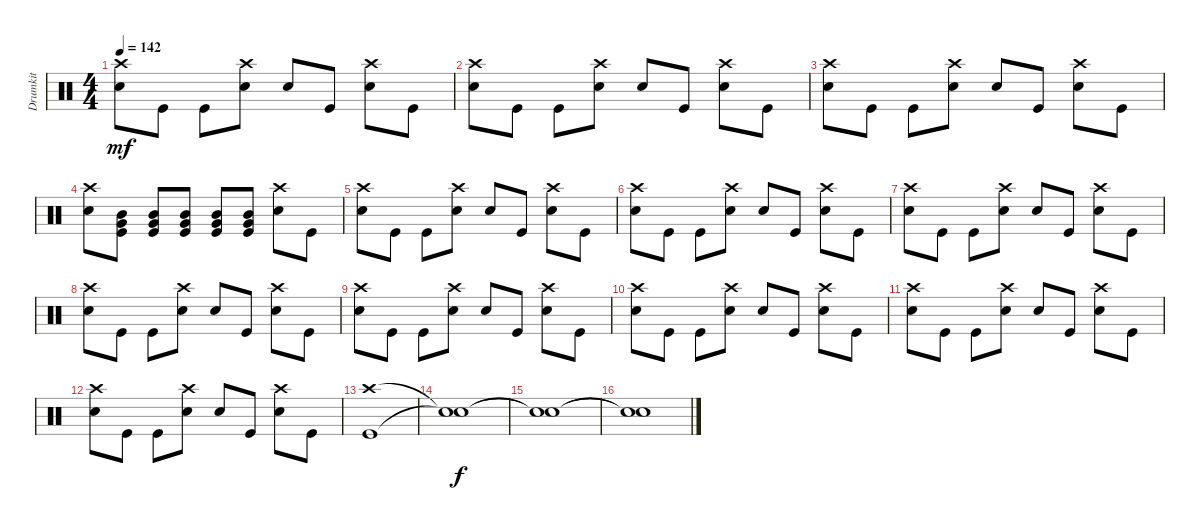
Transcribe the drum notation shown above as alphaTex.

\track ("Drumkit" "Drumkit") {instrument percussion}
\staff {score}
\articulation defaults
\ts (4 4)
\tempo 142
\clef neutral
\ks c
("Snare (hit) 2" "Crash high (hit)").8{dy mf} "Kick (hit)".8 "Kick (hit)".8 ("Snare (hit) 2" "Crash high (hit)").8 "Snare (hit) 2".8 "Kick (hit)".8 ("Snare (hit) 2" "Crash high (hit)").8 "Kick (hit)".8 |
("Snare (hit) 2" "Crash high (hit)").8 "Kick (hit)".8 "Kick (hit)".8 ("Snare (hit) 2" "Crash high (hit)").8 "Snare (hit) 2".8 "Kick (hit)".8 ("Snare (hit) 2" "Crash high (hit)").8 "Kick (hit)".8 |
("Snare (hit) 2" "Crash high (hit)").8 "Kick (hit)".8 "Kick (hit)".8 ("Snare (hit) 2" "Crash high (hit)").8 "Snare (hit) 2".8 "Kick (hit)".8 ("Snare (hit) 2" "Crash high (hit)").8 "Kick (hit)".8 |
("Snare (hit) 2" "Crash high (hit)").8 ("Kick (hit)" "Very Low Tom (hit)" "Mid Tom (hit)").8 ("Kick (hit)" "Very Low Tom (hit)" "Mid Tom (hit)").8 ("Kick (hit)" "Very Low Tom (hit)" "Mid Tom (hit)").8 ("Kick (hit)" "Very Low Tom (hit)" "Mid Tom (hit)").8 ("Kick (hit)" "Very Low Tom (hit)" "Mid Tom (hit)").8 ("Snare (hit) 2" "Crash high (hit)").8 "Kick (hit)".8 |
("Snare (hit) 2" "Crash high (hit)").8 "Kick (hit)".8 "Kick (hit)".8 ("Snare (hit) 2" "Crash high (hit)").8 "Snare (hit) 2".8 "Kick (hit)".8 ("Snare (hit) 2" "Crash high (hit)").8 "Kick (hit)".8 |
("Snare (hit) 2" "Crash high (hit)").8 "Kick (hit)".8 "Kick (hit)".8 ("Snare (hit) 2" "Crash high (hit)").8 "Snare (hit) 2".8 "Kick (hit)".8 ("Snare (hit) 2" "Crash high (hit)").8 "Kick (hit)".8 |
("Snare (hit) 2" "Crash high (hit)").8 "Kick (hit)".8 "Kick (hit)".8 ("Snare (hit) 2" "Crash high (hit)").8 "Snare (hit) 2".8 "Kick (hit)".8 ("Snare (hit) 2" "Crash high (hit)").8 "Kick (hit)".8 |
("Snare (hit) 2" "Crash high (hit)").8 "Kick (hit)".8 "Kick (hit)".8 ("Snare (hit) 2" "Crash high (hit)").8 "Snare (hit) 2".8 "Kick (hit)".8 ("Snare (hit) 2" "Crash high (hit)").8 "Kick (hit)".8 |
("Snare (hit) 2" "Crash high (hit)").8 "Kick (hit)".8 "Kick (hit)".8 ("Snare (hit) 2" "Crash high (hit)").8 "Snare (hit) 2".8 "Kick (hit)".8 ("Snare (hit) 2" "Crash high (hit)").8 "Kick (hit)".8 |
("Snare (hit) 2" "Crash high (hit)").8 "Kick (hit)".8 "Kick (hit)".8 ("Snare (hit) 2" "Crash high (hit)").8 "Snare (hit) 2".8 "Kick (hit)".8 ("Snare (hit) 2" "Crash high (hit)").8 "Kick (hit)".8 |
("Snare (hit) 2" "Crash high (hit)").8 "Kick (hit)".8 "Kick (hit)".8 ("Snare (hit) 2" "Crash high (hit)").8 "Snare (hit) 2".8 "Kick (hit)".8 ("Snare (hit) 2" "Crash high (hit)").8 "Kick (hit)".8 |
("Snare (hit) 2" "Crash high (hit)").8 "Kick (hit)".8 "Kick (hit)".8 ("Snare (hit) 2" "Crash high (hit)").8 "Snare (hit) 2".8 "Kick (hit)".8 ("Snare (hit) 2" "Crash high (hit)").8 "Kick (hit)".8 |
("Kick (hit)" "Crash high (hit)").1 |
("Snare (hit)"{t} "Snare (hit)"{t}).1{dy f} |
("Snare (hit)"{t} "Snare (hit)"{t}).1 |
("Snare (hit)"{t} "Snare (hit)"{t}).1
